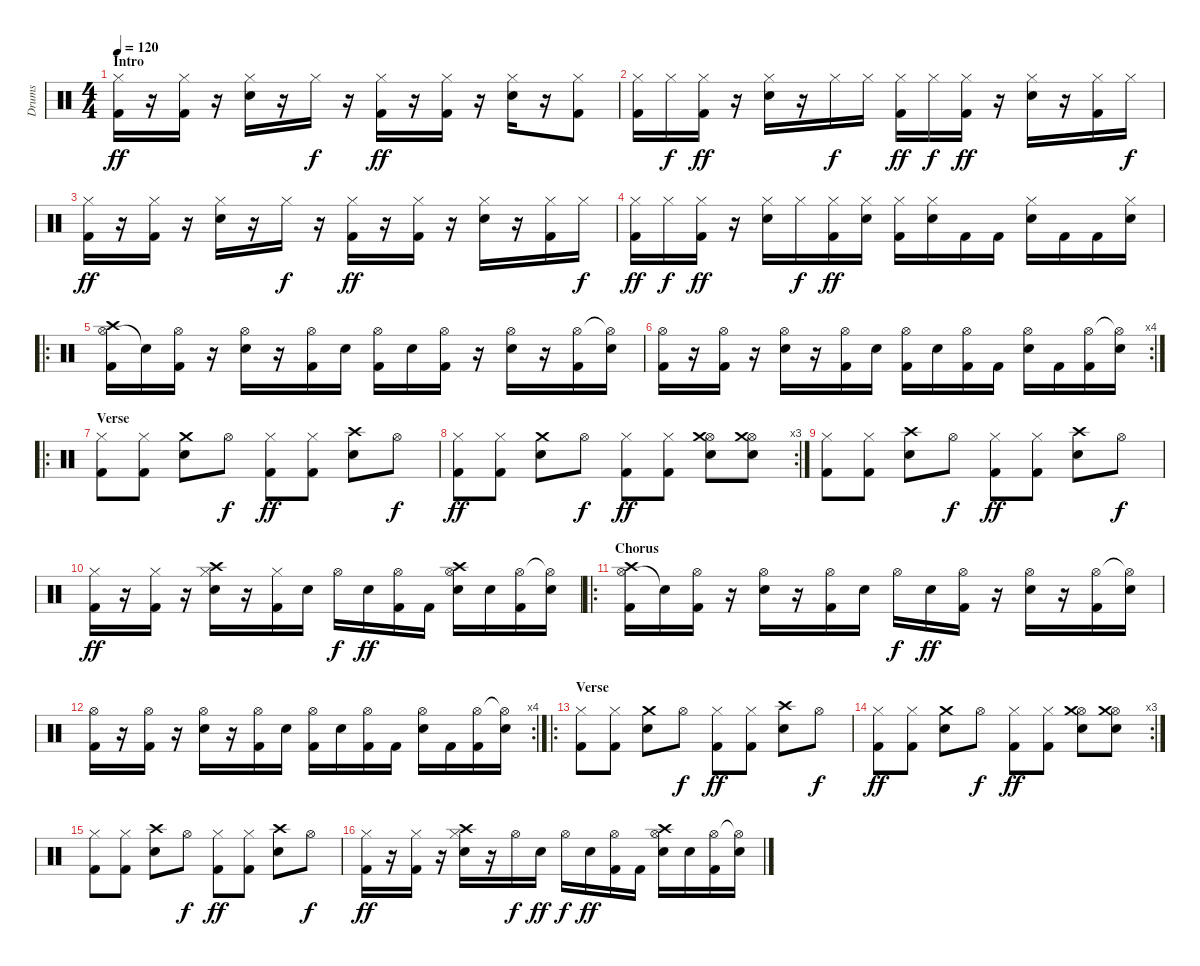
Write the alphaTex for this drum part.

\track ("Drums" "Drums") {instrument percussion}
\staff {score}
\articulation defaults
\ts (4 4)
\section ("" "Intro")
\tempo 120
\clef neutral
\ks c
("Hi-Hat (closed)" "Kick (hit) 2").16{dy ff} r.16 ("Hi-Hat (closed)" "Kick (hit) 2").16 r.16 ("Hi-Hat (closed)" "Electric Snare (hit)").16 r.16 "Hi-Hat (closed)".16{dy f} r.16 ("Hi-Hat (closed)" "Kick (hit) 2").16{dy ff} r.16 ("Hi-Hat (closed)" "Kick (hit) 2").16 r.16 ("Hi-Hat (closed)" "Electric Snare (hit)").16 r.16 ("Hi-Hat (closed)" "Kick (hit) 2").8 |
("Hi-Hat (closed)" "Kick (hit) 2").16 "Hi-Hat (closed)".16{dy f} ("Hi-Hat (closed)" "Kick (hit) 2").16{dy ff} r.16 ("Hi-Hat (closed)" "Electric Snare (hit)").16 r.16 "Hi-Hat (closed)".16{dy f} "Hi-Hat (closed)".16 ("Hi-Hat (closed)" "Kick (hit) 2").16{dy ff} "Hi-Hat (closed)".16{dy f} ("Hi-Hat (closed)" "Kick (hit) 2").16{dy ff} r.16 ("Hi-Hat (closed)" "Electric Snare (hit)").16 r.16 ("Hi-Hat (closed)" "Kick (hit) 2").16 "Hi-Hat (closed)".16{dy f} |
("Hi-Hat (closed)" "Kick (hit) 2").16{dy ff} r.16 ("Hi-Hat (closed)" "Kick (hit) 2").16 r.16 ("Hi-Hat (closed)" "Electric Snare (hit)").16 r.16 "Hi-Hat (closed)".16{dy f} r.16 ("Hi-Hat (closed)" "Kick (hit) 2").16{dy ff} r.16 ("Hi-Hat (closed)" "Kick (hit) 2").16 r.16 ("Hi-Hat (closed)" "Electric Snare (hit)").16 r.16 ("Hi-Hat (closed)" "Kick (hit) 2").16 "Hi-Hat (closed)".16{dy f} |
("Hi-Hat (closed)" "Kick (hit) 2").16{dy ff} "Hi-Hat (closed)".16{dy f} ("Hi-Hat (closed)" "Kick (hit) 2").16{dy ff} r.16 ("Hi-Hat (closed)" "Electric Snare (hit)").16 "Hi-Hat (closed)".16{dy f} ("Hi-Hat (closed)" "Kick (hit) 2").16{dy ff} ("Hi-Hat (closed)" "Electric Snare (hit)").16 ("Hi-Hat (closed)" "Kick (hit) 2").16 ("Hi-Hat (closed)" "Electric Snare (hit)").16 "Kick (hit) 2".16 "Kick (hit) 2".16 ("Hi-Hat (closed)" "Electric Snare (hit)").16 "Kick (hit) 2".16 "Kick (hit) 2".16 ("Hi-Hat (closed)" "Electric Snare (hit)").16 |
\ro
("Hi-Hat (open)" "Crash high (hit)" "Kick (hit) 2").16 "Snare (hit)"{t}.16 ("Hi-Hat (open)" "Kick (hit) 2").16 r.16 ("Hi-Hat (open)" "Electric Snare (hit)").16 r.16 ("Hi-Hat (open)" "Kick (hit) 2").16 "Electric Snare (hit)".16 ("Hi-Hat (open)" "Kick (hit) 2").16 "Electric Snare (hit)".16 ("Hi-Hat (open)" "Kick (hit) 2").16 r.16 ("Hi-Hat (open)" "Electric Snare (hit)").16 r.16 ("Hi-Hat (open)" "Kick (hit) 2").16 ("Hi-Hat (open)"{t} "Electric Snare (hit)").16 |
\rc 4
("Hi-Hat (open)" "Kick (hit) 2").16 r.16 ("Hi-Hat (open)" "Kick (hit) 2").16 r.16 ("Hi-Hat (open)" "Electric Snare (hit)").16 r.16 ("Hi-Hat (open)" "Kick (hit) 2").16 "Electric Snare (hit)".16 ("Hi-Hat (open)" "Kick (hit) 2").16 "Electric Snare (hit)".16 ("Hi-Hat (open)" "Kick (hit) 2").16 "Kick (hit) 2".16 ("Hi-Hat (open)" "Electric Snare (hit)").16 "Kick (hit) 2".16 ("Hi-Hat (open)" "Kick (hit) 2").16 ("Hi-Hat (open)"{t} "Electric Snare (hit)").16 |
\ro
\section ("" "Verse")
("Hi-Hat (closed)" "Kick (hit) 2").8 ("Hi-Hat (closed)" "Kick (hit) 2").8 ("Electric Snare (hit)" "Crash medium (hit)").8 "Hi-Hat (open)".8{dy f} ("Hi-Hat (closed)" "Kick (hit) 2").8{dy ff} ("Hi-Hat (closed)" "Kick (hit) 2").8 ("Electric Snare (hit)" "Crash high (hit)").8 "Hi-Hat (open)".8{dy f} |
\rc 3
("Hi-Hat (closed)" "Kick (hit) 2").8{dy ff} ("Hi-Hat (closed)" "Kick (hit) 2").8 ("Electric Snare (hit)" "Crash medium (hit)").8 "Hi-Hat (open)".8{dy f} ("Hi-Hat (closed)" "Kick (hit) 2").8{dy ff} ("Hi-Hat (closed)" "Kick (hit) 2").8 ("Hi-Hat (open)" "Electric Snare (hit)" "Crash medium (hit)").8 ("Hi-Hat (open)" "Electric Snare (hit)" "Crash medium (hit)").8 |
("Hi-Hat (closed)" "Kick (hit) 2").8 ("Hi-Hat (closed)" "Kick (hit) 2").8 ("Electric Snare (hit)" "Crash high (hit)").8 "Hi-Hat (open)".8{dy f} ("Hi-Hat (closed)" "Kick (hit) 2").8{dy ff} ("Hi-Hat (closed)" "Kick (hit) 2").8 ("Electric Snare (hit)" "Crash high (hit)").8 "Hi-Hat (open)".8{dy f} |
("Hi-Hat (closed)" "Kick (hit) 2").16{dy ff} r.16 ("Hi-Hat (closed)" "Kick (hit) 2").16 r.16 ("Hi-Hat (closed)" "Electric Snare (hit)" "Crash high (hit)").16 r.16 ("Hi-Hat (closed)" "Kick (hit) 2").16 "Electric Snare (hit)".16 "Hi-Hat (open)".16{dy f} "Electric Snare (hit)".16{dy ff} ("Hi-Hat (open)" "Kick (hit) 2").16 "Kick (hit) 2".16 ("Hi-Hat (open)" "Electric Snare (hit)" "Crash high (hit)").16 "Electric Snare (hit)".16 ("Hi-Hat (open)" "Kick (hit) 2").16 ("Hi-Hat (open)"{t} "Electric Snare (hit)").16 |
\ro
\section ("" "Chorus")
("Hi-Hat (open)" "Crash high (hit)" "Kick (hit) 2").16 "Snare (hit)"{t}.16 ("Hi-Hat (open)" "Kick (hit) 2").16 r.16 ("Hi-Hat (open)" "Electric Snare (hit)").16 r.16 ("Hi-Hat (open)" "Kick (hit) 2").16 "Electric Snare (hit)".16 "Hi-Hat (open)".16{dy f} "Electric Snare (hit)".16{dy ff} ("Hi-Hat (open)" "Kick (hit) 2").16 r.16 ("Hi-Hat (open)" "Electric Snare (hit)").16 r.16 ("Hi-Hat (open)" "Kick (hit) 2").16 ("Hi-Hat (open)"{t} "Electric Snare (hit)").16 |
\rc 4
("Hi-Hat (open)" "Kick (hit) 2").16 r.16 ("Hi-Hat (open)" "Kick (hit) 2").16 r.16 ("Hi-Hat (open)" "Electric Snare (hit)").16 r.16 ("Hi-Hat (open)" "Kick (hit) 2").16 "Electric Snare (hit)".16 ("Hi-Hat (open)" "Kick (hit) 2").16 "Electric Snare (hit)".16 ("Hi-Hat (open)" "Kick (hit) 2").16 "Kick (hit) 2".16 ("Hi-Hat (open)" "Electric Snare (hit)").16 "Kick (hit) 2".16 ("Hi-Hat (open)" "Kick (hit) 2").16 ("Hi-Hat (open)"{t} "Electric Snare (hit)").16 |
\ro
\section ("" "Verse")
("Hi-Hat (closed)" "Kick (hit) 2").8 ("Hi-Hat (closed)" "Kick (hit) 2").8 ("Electric Snare (hit)" "Crash medium (hit)").8 "Hi-Hat (open)".8{dy f} ("Hi-Hat (closed)" "Kick (hit) 2").8{dy ff} ("Hi-Hat (closed)" "Kick (hit) 2").8 ("Electric Snare (hit)" "Crash high (hit)").8 "Hi-Hat (open)".8{dy f} |
\rc 3
("Hi-Hat (closed)" "Kick (hit) 2").8{dy ff} ("Hi-Hat (closed)" "Kick (hit) 2").8 ("Electric Snare (hit)" "Crash medium (hit)").8 "Hi-Hat (open)".8{dy f} ("Hi-Hat (closed)" "Kick (hit) 2").8{dy ff} ("Hi-Hat (closed)" "Kick (hit) 2").8 ("Hi-Hat (open)" "Electric Snare (hit)" "Crash medium (hit)").8 ("Hi-Hat (open)" "Electric Snare (hit)" "Crash medium (hit)").8 |
("Hi-Hat (closed)" "Kick (hit) 2").8 ("Hi-Hat (closed)" "Kick (hit) 2").8 ("Electric Snare (hit)" "Crash high (hit)").8 "Hi-Hat (open)".8{dy f} ("Hi-Hat (closed)" "Kick (hit) 2").8{dy ff} ("Hi-Hat (closed)" "Kick (hit) 2").8 ("Electric Snare (hit)" "Crash high (hit)").8 "Hi-Hat (open)".8{dy f} |
("Hi-Hat (closed)" "Kick (hit) 2").16{dy ff} r.16 ("Hi-Hat (closed)" "Kick (hit) 2").16 r.16 ("Hi-Hat (closed)" "Electric Snare (hit)" "Crash high (hit)").16 r.16 "Hi-Hat (open)".16{dy f} "Electric Snare (hit)".16{dy ff} "Hi-Hat (open)".16{dy f} "Electric Snare (hit)".16{dy ff} ("Hi-Hat (open)" "Kick (hit) 2").16 "Kick (hit) 2".16 ("Hi-Hat (open)" "Electric Snare (hit)" "Crash high (hit)").16 "Electric Snare (hit)".16 ("Hi-Hat (open)" "Kick (hit) 2").16 ("Hi-Hat (open)"{t} "Electric Snare (hit)").16
